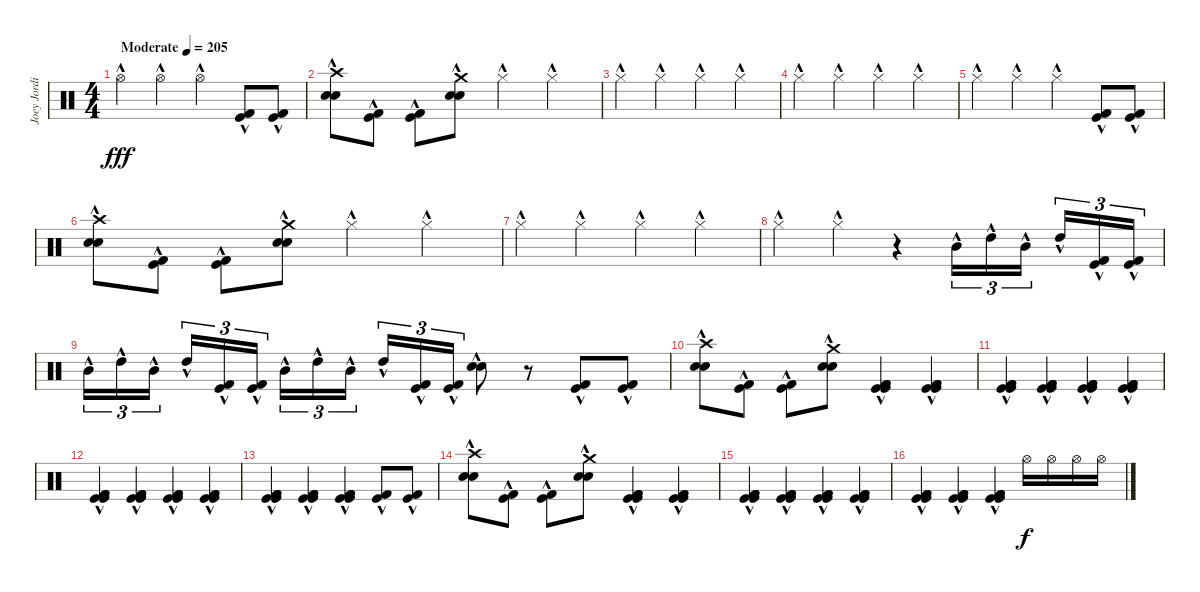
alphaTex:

\track ("Joey Jordison" "Joey Jordi") {instrument percussion}
\staff {score}
\articulation defaults
\ts (4 4)
\tempo (205 "Moderate")
\clef neutral
\ks c "Hi-Hat (open)"{hac}.4{dy fff} "Hi-Hat (open)"{hac}.4 "Hi-Hat (open)"{hac}.4
("Kick (hit)"{hac} "Kick (hit) 2"{hac}).8 ("Kick (hit)"{hac} "Kick (hit) 2"{hac}).8 |
("Crash high (hit)"{hac} "Electric Snare (hit)"{hac} "Electric Snare (hit)"{hac}).8 ("Kick (hit)"{hac} "Kick (hit) 2"{hac}).8 ("Kick (hit)"{hac} "Kick (hit) 2"{hac}).8 ("Crash medium (hit)"{hac} "Electric Snare (hit)"{hac} "Electric Snare (hit)"{hac}).8 "Hi-Hat (closed)"{hac}.4 "Hi-Hat (closed)"{hac}.4 |
"Hi-Hat (closed)"{hac}.4 "Hi-Hat (closed)"{hac}.4 "Hi-Hat (closed)"{hac}.4 "Hi-Hat (closed)"{hac}.4 |
"Hi-Hat (closed)"{hac}.4 "Hi-Hat (closed)"{hac}.4 "Hi-Hat (closed)"{hac}.4 "Hi-Hat (closed)"{hac}.4 |
"Hi-Hat (closed)"{hac}.4 "Hi-Hat (closed)"{hac}.4 "Hi-Hat (closed)"{hac}.4 ("Kick (hit)"{hac} "Kick (hit) 2"{hac}).8 ("Kick (hit)"{hac} "Kick (hit) 2"{hac}).8 |
("Crash high (hit)"{hac} "Electric Snare (hit)"{hac} "Electric Snare (hit)"{hac}).8 ("Kick (hit)"{hac} "Kick (hit) 2"{hac}).8 ("Kick (hit)"{hac} "Kick (hit) 2"{hac}).8 ("Crash medium (hit)"{hac} "Electric Snare (hit)"{hac} "Electric Snare (hit)"{hac}).8 "Hi-Hat (closed)"{hac}.4 "Hi-Hat (closed)"{hac}.4 |
"Hi-Hat (closed)"{hac}.4 "Hi-Hat (closed)"{hac}.4 "Hi-Hat (closed)"{hac}.4 "Hi-Hat (closed)"{hac}.4 |
"Hi-Hat (closed)"{hac}.4 "Hi-Hat (closed)"{hac}.4 r.4 "Mid Tom (hit)"{hac}.16{tu (3 2)} "High Tom (hit)"{hac}.16{tu (3 2)} "Mid Tom (hit)"{hac}.16{tu (3 2) beam splitsecondary} "High Tom (hit)"{hac}.16{tu (3 2)} ("Kick (hit)"{hac} "Kick (hit) 2"{hac}).16{tu (3 2)} ("Kick (hit)"{hac} "Kick (hit) 2"{hac}).16{tu (3 2)} |
"Mid Tom (hit)"{hac}.16{tu (3 2)} "High Tom (hit)"{hac}.16{tu (3 2)} "Mid Tom (hit)"{hac}.16{tu (3 2) beam splitsecondary} "High Tom (hit)"{hac}.16{tu (3 2)} ("Kick (hit)"{hac} "Kick (hit) 2"{hac}).16{tu (3 2)} ("Kick (hit)"{hac} "Kick (hit) 2"{hac}).16{tu (3 2)} "Mid Tom (hit)"{hac}.16{tu (3 2)} "High Tom (hit)"{hac}.16{tu (3 2)} "Mid Tom (hit)"{hac}.16{tu (3 2) beam splitsecondary} "High Tom (hit)"{hac}.16{tu (3 2)} ("Kick (hit)"{hac} "Kick (hit) 2"{hac}).16{tu (3 2)} ("Kick (hit)"{hac} "Kick (hit) 2"{hac}).16{tu (3 2)} ("Electric Snare (hit)"{hac} "Electric Snare (hit)"{hac}).8 r.8 ("Kick (hit) 2"{hac} "Kick (hit)"{hac}).8 ("Kick (hit) 2"{hac} "Kick (hit)"{hac}).8 |
("Crash high (hit)"{hac} "Electric Snare (hit)"{hac} "Electric Snare (hit)"{hac}).8 ("Kick (hit)"{hac} "Kick (hit) 2"{hac}).8 ("Kick (hit)"{hac} "Kick (hit) 2"{hac}).8 ("Crash medium (hit)"{hac} "Electric Snare (hit)"{hac} "Electric Snare (hit)"{hac}).8 ("Kick (hit)"{hac} "Kick (hit) 2"{hac} "Kick (hit)"{hac} "Kick (hit) 2"{hac}).4 ("Kick (hit)"{hac} "Kick (hit) 2"{hac} "Kick (hit)"{hac} "Kick (hit) 2"{hac}).4 |
("Kick (hit)"{hac} "Kick (hit) 2"{hac} "Kick (hit)"{hac} "Kick (hit) 2"{hac}).4 ("Kick (hit)"{hac} "Kick (hit) 2"{hac} "Kick (hit)"{hac} "Kick (hit) 2"{hac}).4 ("Kick (hit)"{hac} "Kick (hit) 2"{hac} "Kick (hit)"{hac} "Kick (hit) 2"{hac}).4 ("Kick (hit)"{hac} "Kick (hit) 2"{hac} "Kick (hit)"{hac} "Kick (hit) 2"{hac}).4 |
("Kick (hit)"{hac} "Kick (hit) 2"{hac} "Kick (hit)"{hac} "Kick (hit) 2"{hac}).4 ("Kick (hit)"{hac} "Kick (hit) 2"{hac} "Kick (hit)"{hac} "Kick (hit) 2"{hac}).4 ("Kick (hit)"{hac} "Kick (hit) 2"{hac} "Kick (hit)"{hac} "Kick (hit) 2"{hac}).4 ("Kick (hit)"{hac} "Kick (hit) 2"{hac} "Kick (hit)"{hac} "Kick (hit) 2"{hac}).4 |
("Kick (hit)"{hac} "Kick (hit) 2"{hac} "Kick (hit)"{hac} "Kick (hit) 2"{hac}).4 ("Kick (hit)"{hac} "Kick (hit) 2"{hac} "Kick (hit)"{hac} "Kick (hit) 2"{hac}).4 ("Kick (hit)"{hac} "Kick (hit) 2"{hac} "Kick (hit)"{hac} "Kick (hit) 2"{hac}).4 ("Kick (hit)"{hac} "Kick (hit) 2"{hac}).8 ("Kick (hit)"{hac} "Kick (hit) 2"{hac}).8 |
("Crash high (hit)"{hac} "Electric Snare (hit)"{hac} "Electric Snare (hit)"{hac}).8 ("Kick (hit)"{hac} "Kick (hit) 2"{hac}).8 ("Kick (hit)"{hac} "Kick (hit) 2"{hac}).8 ("Crash medium (hit)"{hac} "Electric Snare (hit)"{hac} "Electric Snare (hit)"{hac}).8 ("Kick (hit)"{hac} "Kick (hit) 2"{hac} "Kick (hit)"{hac} "Kick (hit) 2"{hac}).4 ("Kick (hit)"{hac} "Kick (hit) 2"{hac} "Kick (hit)"{hac} "Kick (hit) 2"{hac}).4 |
("Kick (hit)"{hac} "Kick (hit) 2"{hac} "Kick (hit)"{hac} "Kick (hit) 2"{hac}).4 ("Kick (hit)"{hac} "Kick (hit) 2"{hac} "Kick (hit)"{hac} "Kick (hit) 2"{hac}).4 ("Kick (hit)"{hac} "Kick (hit) 2"{hac} "Kick (hit)"{hac} "Kick (hit) 2"{hac}).4 ("Kick (hit)"{hac} "Kick (hit) 2"{hac} "Kick (hit)"{hac} "Kick (hit) 2"{hac}).4 |
("Kick (hit)"{hac} "Kick (hit) 2"{hac} "Kick (hit)"{hac} "Kick (hit) 2"{hac}).4 ("Kick (hit)"{hac} "Kick (hit) 2"{hac} "Kick (hit)"{hac} "Kick (hit) 2"{hac}).4 ("Kick (hit)"{hac} "Kick (hit) 2"{hac} "Kick (hit)"{hac} "Kick (hit) 2"{hac}).4 "Hi-Hat (open)".16{dy f volume 2} "Hi-Hat (open)".16 "Hi-Hat (open)".16{volume 3} "Hi-Hat (open)".16
